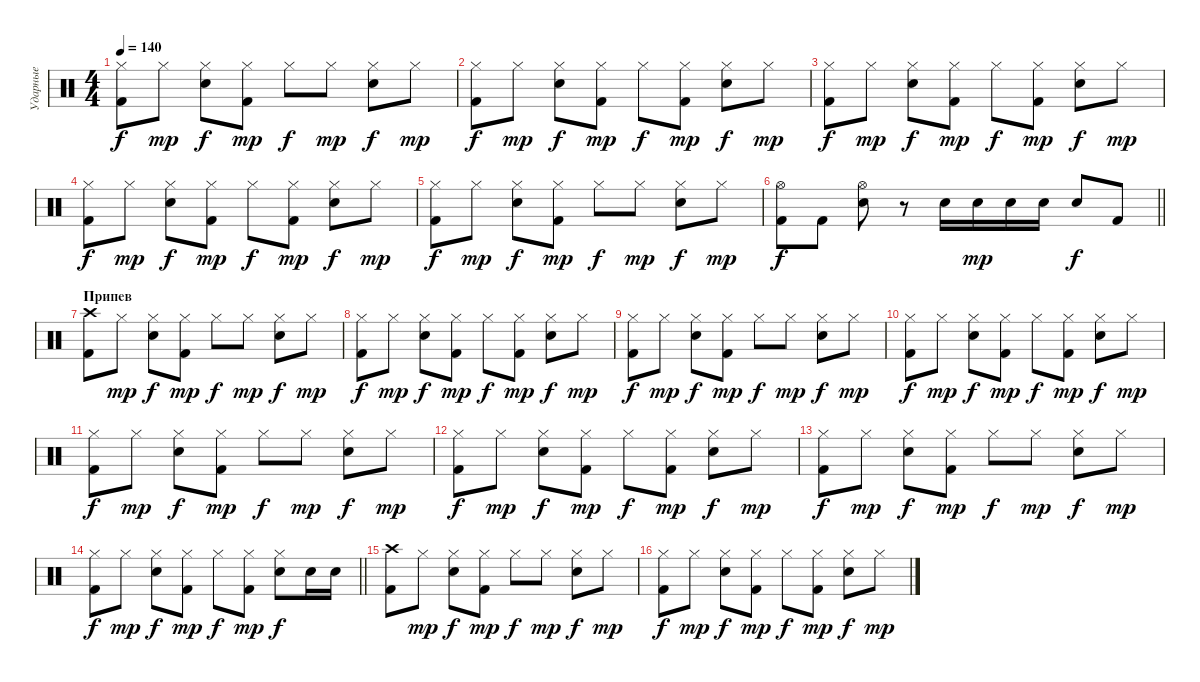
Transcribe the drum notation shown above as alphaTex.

\track ("Ударные" "Ударные") {instrument percussion}
\staff {score}
\articulation defaults
\ts (4 4)
\tempo 140
\clef neutral
\ks c
("Hi-Hat (closed)" "Kick (hit) 2").8{dy f} "Hi-Hat (closed)".8{dy mp} ("Hi-Hat (closed)" "Snare (hit) 2").8{dy f} ("Hi-Hat (closed)" "Kick (hit) 2").8{dy mp} "Hi-Hat (closed)".8{dy f} "Hi-Hat (closed)".8{dy mp} ("Hi-Hat (closed)" "Snare (hit) 2").8{dy f} "Hi-Hat (closed)".8{dy mp} |
("Hi-Hat (closed)" "Kick (hit) 2").8{dy f} "Hi-Hat (closed)".8{dy mp} ("Hi-Hat (closed)" "Snare (hit) 2").8{dy f} ("Hi-Hat (closed)" "Kick (hit) 2").8{dy mp} "Hi-Hat (closed)".8{dy f} ("Hi-Hat (closed)" "Kick (hit) 2").8{dy mp} ("Hi-Hat (closed)" "Snare (hit) 2").8{dy f} "Hi-Hat (closed)".8{dy mp} |
("Hi-Hat (closed)" "Kick (hit) 2").8{dy f} "Hi-Hat (closed)".8{dy mp} ("Hi-Hat (closed)" "Snare (hit) 2").8{dy f} ("Hi-Hat (closed)" "Kick (hit) 2").8{dy mp} "Hi-Hat (closed)".8{dy f} ("Hi-Hat (closed)" "Kick (hit) 2").8{dy mp} ("Hi-Hat (closed)" "Snare (hit) 2").8{dy f} "Hi-Hat (closed)".8{dy mp} |
("Hi-Hat (closed)" "Kick (hit) 2").8{dy f} "Hi-Hat (closed)".8{dy mp} ("Hi-Hat (closed)" "Snare (hit) 2").8{dy f} ("Hi-Hat (closed)" "Kick (hit) 2").8{dy mp} "Hi-Hat (closed)".8{dy f} ("Hi-Hat (closed)" "Kick (hit) 2").8{dy mp} ("Hi-Hat (closed)" "Snare (hit) 2").8{dy f} "Hi-Hat (closed)".8{dy mp} |
("Hi-Hat (closed)" "Kick (hit) 2").8{dy f} "Hi-Hat (closed)".8{dy mp} ("Hi-Hat (closed)" "Snare (hit) 2").8{dy f} ("Hi-Hat (closed)" "Kick (hit) 2").8{dy mp} "Hi-Hat (closed)".8{dy f} "Hi-Hat (closed)".8{dy mp} ("Hi-Hat (closed)" "Snare (hit) 2").8{dy f} "Hi-Hat (closed)".8{dy mp} |
\barLineRight lightlight
("Hi-Hat (open)" "Kick (hit) 2").8{dy f} "Kick (hit) 2".8 ("Hi-Hat (open)" "Snare (hit) 2").8 r.8 "Snare (hit) 2".16 "Snare (hit) 2".16{dy mp} "Snare (hit) 2".16 "Snare (hit) 2".16 "Snare (hit) 2".8{dy f} "Kick (hit) 2".8 |
\section ("" "Припев")
("Crash high (hit)" "Kick (hit) 2").8 "Hi-Hat (closed)".8{dy mp} ("Hi-Hat (closed)" "Snare (hit) 2").8{dy f} ("Hi-Hat (closed)" "Kick (hit) 2").8{dy mp} "Hi-Hat (closed)".8{dy f} "Hi-Hat (closed)".8{dy mp} ("Hi-Hat (closed)" "Snare (hit) 2").8{dy f} "Hi-Hat (closed)".8{dy mp} |
("Hi-Hat (closed)" "Kick (hit) 2").8{dy f} "Hi-Hat (closed)".8{dy mp} ("Hi-Hat (closed)" "Snare (hit) 2").8{dy f} ("Hi-Hat (closed)" "Kick (hit) 2").8{dy mp} "Hi-Hat (closed)".8{dy f} ("Hi-Hat (closed)" "Kick (hit) 2").8{dy mp} ("Hi-Hat (closed)" "Snare (hit) 2").8{dy f} "Hi-Hat (closed)".8{dy mp} |
("Hi-Hat (closed)" "Kick (hit) 2").8{dy f} "Hi-Hat (closed)".8{dy mp} ("Hi-Hat (closed)" "Snare (hit) 2").8{dy f} ("Hi-Hat (closed)" "Kick (hit) 2").8{dy mp} "Hi-Hat (closed)".8{dy f} "Hi-Hat (closed)".8{dy mp} ("Hi-Hat (closed)" "Snare (hit) 2").8{dy f} "Hi-Hat (closed)".8{dy mp} |
("Hi-Hat (closed)" "Kick (hit) 2").8{dy f} "Hi-Hat (closed)".8{dy mp} ("Hi-Hat (closed)" "Snare (hit) 2").8{dy f} ("Hi-Hat (closed)" "Kick (hit) 2").8{dy mp} "Hi-Hat (closed)".8{dy f} ("Hi-Hat (closed)" "Kick (hit) 2").8{dy mp} ("Hi-Hat (closed)" "Snare (hit) 2").8{dy f} "Hi-Hat (closed)".8{dy mp} |
("Hi-Hat (closed)" "Kick (hit) 2").8{dy f} "Hi-Hat (closed)".8{dy mp} ("Hi-Hat (closed)" "Snare (hit) 2").8{dy f} ("Hi-Hat (closed)" "Kick (hit) 2").8{dy mp} "Hi-Hat (closed)".8{dy f} "Hi-Hat (closed)".8{dy mp} ("Hi-Hat (closed)" "Snare (hit) 2").8{dy f} "Hi-Hat (closed)".8{dy mp} |
("Hi-Hat (closed)" "Kick (hit) 2").8{dy f} "Hi-Hat (closed)".8{dy mp} ("Hi-Hat (closed)" "Snare (hit) 2").8{dy f} ("Hi-Hat (closed)" "Kick (hit) 2").8{dy mp} "Hi-Hat (closed)".8{dy f} ("Hi-Hat (closed)" "Kick (hit) 2").8{dy mp} ("Hi-Hat (closed)" "Snare (hit) 2").8{dy f} "Hi-Hat (closed)".8{dy mp} |
("Hi-Hat (closed)" "Kick (hit) 2").8{dy f} "Hi-Hat (closed)".8{dy mp} ("Hi-Hat (closed)" "Snare (hit) 2").8{dy f} ("Hi-Hat (closed)" "Kick (hit) 2").8{dy mp} "Hi-Hat (closed)".8{dy f} "Hi-Hat (closed)".8{dy mp} ("Hi-Hat (closed)" "Snare (hit) 2").8{dy f} "Hi-Hat (closed)".8{dy mp} |
\barLineRight lightlight
("Hi-Hat (closed)" "Kick (hit) 2").8{dy f} "Hi-Hat (closed)".8{dy mp} ("Hi-Hat (closed)" "Snare (hit) 2").8{dy f} ("Hi-Hat (closed)" "Kick (hit) 2").8{dy mp} "Hi-Hat (closed)".8{dy f} ("Hi-Hat (closed)" "Kick (hit) 2").8{dy mp} ("Hi-Hat (closed)" "Snare (hit) 2").8{dy f} "Snare (hit) 2".16 "Snare (hit) 2".16 |
\section ("" "")
("Crash high (hit)" "Kick (hit) 2").8 "Hi-Hat (closed)".8{dy mp} ("Hi-Hat (closed)" "Snare (hit) 2").8{dy f} ("Hi-Hat (closed)" "Kick (hit) 2").8{dy mp} "Hi-Hat (closed)".8{dy f} "Hi-Hat (closed)".8{dy mp} ("Hi-Hat (closed)" "Snare (hit) 2").8{dy f} "Hi-Hat (closed)".8{dy mp} |
("Hi-Hat (closed)" "Kick (hit) 2").8{dy f} "Hi-Hat (closed)".8{dy mp} ("Hi-Hat (closed)" "Snare (hit) 2").8{dy f} ("Hi-Hat (closed)" "Kick (hit) 2").8{dy mp} "Hi-Hat (closed)".8{dy f} ("Hi-Hat (closed)" "Kick (hit) 2").8{dy mp} ("Hi-Hat (closed)" "Snare (hit) 2").8{dy f} "Hi-Hat (closed)".8{dy mp}
